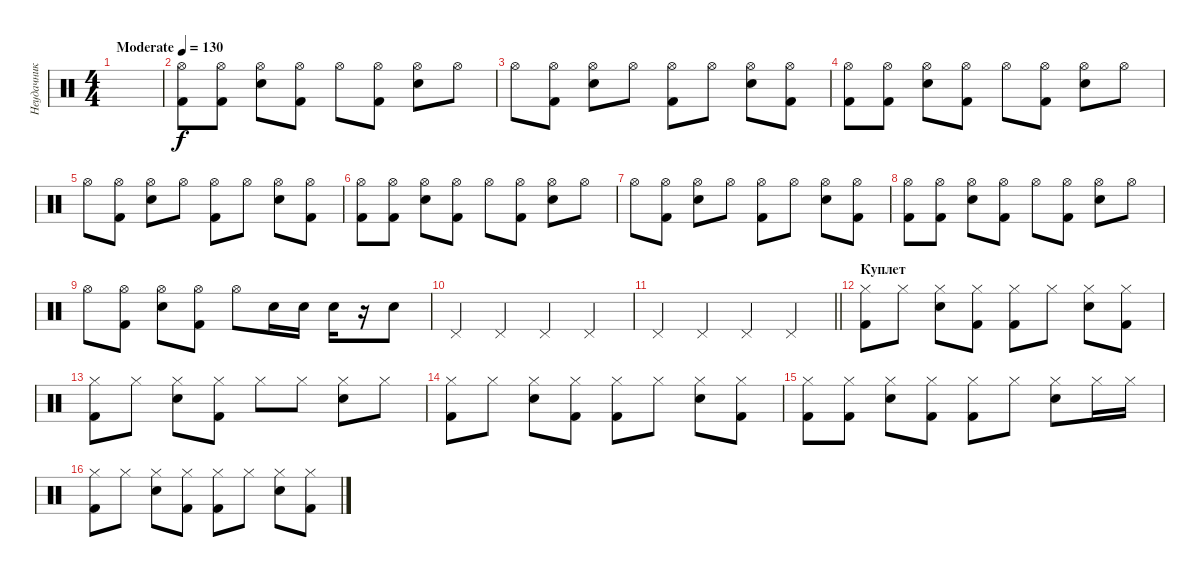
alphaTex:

\track ("Неудачник" "Неудачник") {instrument percussion}
\staff {score}
\articulation defaults
\ts (4 4)
\tempo (130 "Moderate")
\clef neutral
\ks c
|
("Hi-Hat (open)" "Kick (hit) 2").8 ("Hi-Hat (open)" "Kick (hit) 2").8 ("Hi-Hat (open)" "Electric Snare (hit)").8 ("Hi-Hat (open)" "Kick (hit) 2").8 "Hi-Hat (open)".8 ("Hi-Hat (open)" "Kick (hit) 2").8 ("Hi-Hat (open)" "Electric Snare (hit)").8 "Hi-Hat (open)".8 |
"Hi-Hat (open)".8 ("Hi-Hat (open)" "Kick (hit) 2").8 ("Hi-Hat (open)" "Electric Snare (hit)").8 "Hi-Hat (open)".8 ("Hi-Hat (open)" "Kick (hit) 2").8 "Hi-Hat (open)".8 ("Hi-Hat (open)" "Electric Snare (hit)").8 ("Hi-Hat (open)" "Kick (hit) 2").8 |
("Hi-Hat (open)" "Kick (hit) 2").8 ("Hi-Hat (open)" "Kick (hit) 2").8 ("Hi-Hat (open)" "Electric Snare (hit)").8 ("Hi-Hat (open)" "Kick (hit) 2").8 "Hi-Hat (open)".8 ("Hi-Hat (open)" "Kick (hit) 2").8 ("Hi-Hat (open)" "Electric Snare (hit)").8 "Hi-Hat (open)".8 |
"Hi-Hat (open)".8 ("Hi-Hat (open)" "Kick (hit) 2").8 ("Hi-Hat (open)" "Electric Snare (hit)").8 "Hi-Hat (open)".8 ("Hi-Hat (open)" "Kick (hit) 2").8 "Hi-Hat (open)".8 ("Hi-Hat (open)" "Electric Snare (hit)").8 ("Hi-Hat (open)" "Kick (hit) 2").8 |
("Hi-Hat (open)" "Kick (hit) 2").8 ("Hi-Hat (open)" "Kick (hit) 2").8 ("Hi-Hat (open)" "Electric Snare (hit)").8 ("Hi-Hat (open)" "Kick (hit) 2").8 "Hi-Hat (open)".8 ("Hi-Hat (open)" "Kick (hit) 2").8 ("Hi-Hat (open)" "Electric Snare (hit)").8 "Hi-Hat (open)".8 |
"Hi-Hat (open)".8 ("Hi-Hat (open)" "Kick (hit) 2").8 ("Hi-Hat (open)" "Electric Snare (hit)").8 "Hi-Hat (open)".8 ("Hi-Hat (open)" "Kick (hit) 2").8 "Hi-Hat (open)".8 ("Hi-Hat (open)" "Electric Snare (hit)").8 ("Hi-Hat (open)" "Kick (hit) 2").8 |
("Hi-Hat (open)" "Kick (hit) 2").8 ("Hi-Hat (open)" "Kick (hit) 2").8 ("Hi-Hat (open)" "Electric Snare (hit)").8 ("Hi-Hat (open)" "Kick (hit) 2").8 "Hi-Hat (open)".8 ("Hi-Hat (open)" "Kick (hit) 2").8 ("Hi-Hat (open)" "Electric Snare (hit)").8 "Hi-Hat (open)".8 |
"Hi-Hat (open)".8 ("Hi-Hat (open)" "Kick (hit) 2").8 ("Hi-Hat (open)" "Electric Snare (hit)").8 ("Hi-Hat (open)" "Kick (hit) 2").8 "Hi-Hat (open)".8 "Electric Snare (hit)".16 "Electric Snare (hit)".16 "Electric Snare (hit)".16 r.16 "Electric Snare (hit)".8 |
"Pedal Hi-Hat (hit)".4 "Pedal Hi-Hat (hit)".4 "Pedal Hi-Hat (hit)".4 "Pedal Hi-Hat (hit)".4 |
\barLineRight lightlight "Pedal Hi-Hat (hit)".4 "Pedal Hi-Hat (hit)".4 "Pedal Hi-Hat (hit)".4 "Pedal Hi-Hat (hit)".4
|
\section ("" "Куплет")
("Hi-Hat (closed)" "Kick (hit) 2").8 "Hi-Hat (closed)".8 ("Hi-Hat (closed)" "Electric Snare (hit)").8 ("Hi-Hat (closed)" "Kick (hit) 2").8 ("Hi-Hat (closed)" "Kick (hit) 2").8 "Hi-Hat (closed)".8 ("Hi-Hat (closed)" "Electric Snare (hit)").8 ("Hi-Hat (closed)" "Kick (hit) 2").8 |
("Hi-Hat (closed)" "Kick (hit) 2").8 "Hi-Hat (closed)".8 ("Hi-Hat (closed)" "Electric Snare (hit)").8 ("Hi-Hat (closed)" "Kick (hit) 2").8 "Hi-Hat (closed)".8 "Hi-Hat (closed)".8 ("Hi-Hat (closed)" "Electric Snare (hit)").8 "Hi-Hat (closed)".8 |
("Hi-Hat (closed)" "Kick (hit) 2").8 "Hi-Hat (closed)".8 ("Hi-Hat (closed)" "Electric Snare (hit)").8 ("Hi-Hat (closed)" "Kick (hit) 2").8 ("Hi-Hat (closed)" "Kick (hit) 2").8 "Hi-Hat (closed)".8 ("Hi-Hat (closed)" "Electric Snare (hit)").8 ("Hi-Hat (closed)" "Kick (hit) 2").8 |
("Hi-Hat (closed)" "Kick (hit) 2").8 ("Hi-Hat (closed)" "Kick (hit) 2").8 ("Hi-Hat (closed)" "Electric Snare (hit)").8 ("Hi-Hat (closed)" "Kick (hit) 2").8 ("Hi-Hat (closed)" "Kick (hit) 2").8 "Hi-Hat (closed)".8 ("Hi-Hat (closed)" "Electric Snare (hit)").8 "Hi-Hat (closed)".16 "Hi-Hat (closed)".16 |
("Hi-Hat (closed)" "Kick (hit) 2").8 "Hi-Hat (closed)".8 ("Hi-Hat (closed)" "Electric Snare (hit)").8 ("Hi-Hat (closed)" "Kick (hit) 2").8 ("Hi-Hat (closed)" "Kick (hit) 2").8 "Hi-Hat (closed)".8 ("Hi-Hat (closed)" "Electric Snare (hit)").8 ("Hi-Hat (closed)" "Kick (hit) 2").8
